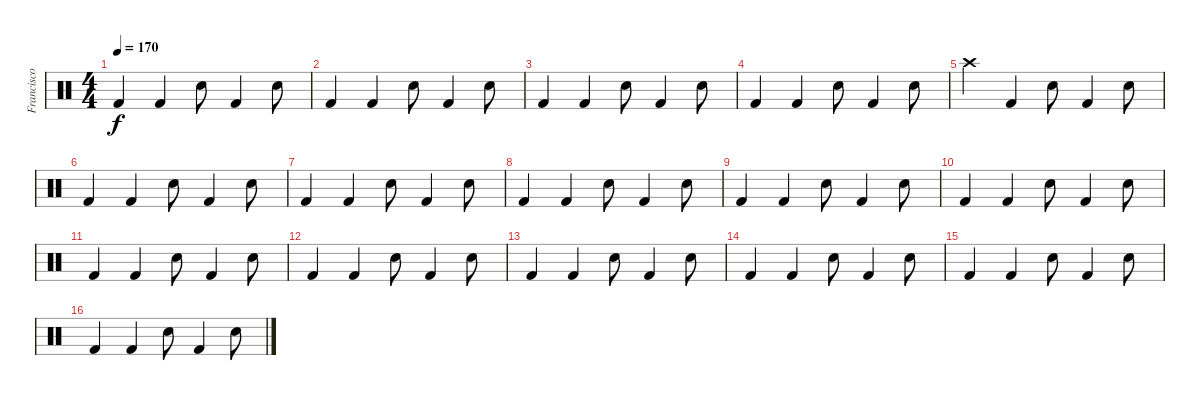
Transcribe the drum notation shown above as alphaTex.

\track ("Francisco (batería)" "Francisco ") {instrument percussion}
\staff {score}
\articulation defaults
\ts (4 4)
\tempo 170
\clef neutral
\ks c "Kick (hit) 2".4{dy f volume 16} "Kick (hit) 2".4 "Electric Snare (hit)".8 "Kick (hit) 2".4 "Electric Snare (hit)".8
|
"Kick (hit) 2".4{volume 16} "Kick (hit) 2".4 "Electric Snare (hit)".8 "Kick (hit) 2".4 "Electric Snare (hit)".8 |
"Kick (hit) 2".4{volume 16} "Kick (hit) 2".4 "Electric Snare (hit)".8 "Kick (hit) 2".4 "Electric Snare (hit)".8 |
"Kick (hit) 2".4{volume 16} "Kick (hit) 2".4 "Electric Snare (hit)".8 "Kick (hit) 2".4 "Electric Snare (hit)".8 |
"Crash high (hit)".4{volume 16} "Kick (hit) 2".4 "Electric Snare (hit)".8 "Kick (hit) 2".4 "Electric Snare (hit)".8 |
"Kick (hit) 2".4{volume 16} "Kick (hit) 2".4 "Electric Snare (hit)".8 "Kick (hit) 2".4 "Electric Snare (hit)".8 |
"Kick (hit) 2".4{volume 16} "Kick (hit) 2".4 "Electric Snare (hit)".8 "Kick (hit) 2".4 "Electric Snare (hit)".8 |
"Kick (hit) 2".4{volume 16} "Kick (hit) 2".4 "Electric Snare (hit)".8 "Kick (hit) 2".4 "Electric Snare (hit)".8 |
"Kick (hit) 2".4{volume 16} "Kick (hit) 2".4 "Electric Snare (hit)".8 "Kick (hit) 2".4 "Electric Snare (hit)".8 |
"Kick (hit) 2".4{volume 16} "Kick (hit) 2".4 "Electric Snare (hit)".8 "Kick (hit) 2".4 "Electric Snare (hit)".8 |
"Kick (hit) 2".4{volume 16} "Kick (hit) 2".4 "Electric Snare (hit)".8 "Kick (hit) 2".4 "Electric Snare (hit)".8 |
"Kick (hit) 2".4{volume 16} "Kick (hit) 2".4 "Electric Snare (hit)".8 "Kick (hit) 2".4 "Electric Snare (hit)".8 |
"Kick (hit) 2".4{volume 16} "Kick (hit) 2".4 "Electric Snare (hit)".8 "Kick (hit) 2".4 "Electric Snare (hit)".8 |
"Kick (hit) 2".4{volume 16} "Kick (hit) 2".4 "Electric Snare (hit)".8 "Kick (hit) 2".4 "Electric Snare (hit)".8 |
"Kick (hit) 2".4{volume 16} "Kick (hit) 2".4 "Electric Snare (hit)".8 "Kick (hit) 2".4 "Electric Snare (hit)".8 |
"Kick (hit) 2".4{volume 16} "Kick (hit) 2".4 "Electric Snare (hit)".8 "Kick (hit) 2".4 "Electric Snare (hit)".8
